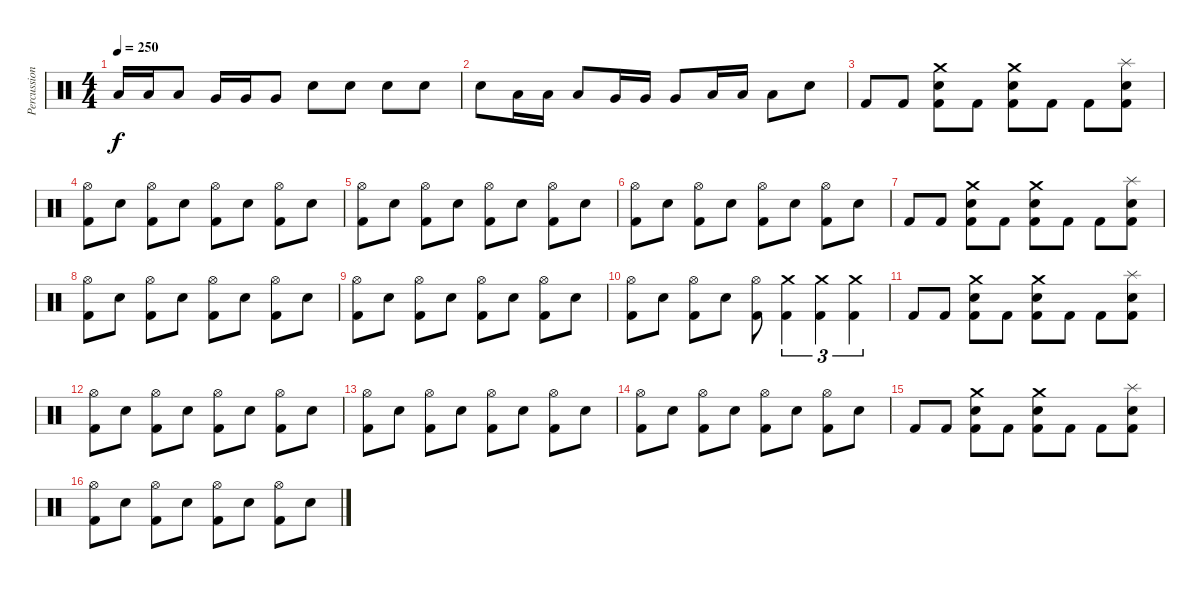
\track ("Percussioni" "Percussion") {instrument percussion}
\staff {score}
\articulation defaults
\ts (4 4)
\tempo 250
\clef neutral
\ks c "Low Tom (hit)".16{dy f} "Low Tom (hit)".16 "Low Tom (hit)".8 "Very Low Tom (hit)".16 "Very Low Tom (hit)".16 "Very Low Tom (hit)".8 "Electric Snare (hit)".8 "Electric Snare (hit)".8 "Electric Snare (hit)".8 "Electric Snare (hit)".8
|
"Electric Snare (hit)".8 "Low Tom (hit)".16 "Low Tom (hit)".16 "Low Tom (hit)".8 "Very Low Tom (hit)".16 "Very Low Tom (hit)".16 "Very Low Tom (hit)".8 "Low Floor Tom (hit)".16 "Low Floor Tom (hit)".16 "Low Floor Tom (hit)".8 "Electric Snare (hit)".8 |
"Kick (hit) 2".8 "Kick (hit) 2".8 ("Crash medium (hit)" "Electric Snare (hit)" "Kick (hit) 2").8 "Kick (hit) 2".8 ("Crash medium (hit)" "Electric Snare (hit)" "Kick (hit) 2").8 "Kick (hit) 2".8 "Kick (hit) 2".8 ("Splash (hit)" "Electric Snare (hit)" "Kick (hit) 2").8 |
("Hi-Hat (open)" "Kick (hit) 2").8 "Electric Snare (hit)".8 ("Hi-Hat (open)" "Kick (hit) 2").8 "Electric Snare (hit)".8 ("Hi-Hat (open)" "Kick (hit) 2").8 "Electric Snare (hit)".8 ("Hi-Hat (open)" "Kick (hit) 2").8 "Electric Snare (hit)".8 |
("Hi-Hat (open)" "Kick (hit) 2").8 "Electric Snare (hit)".8 ("Hi-Hat (open)" "Kick (hit) 2").8 "Electric Snare (hit)".8 ("Hi-Hat (open)" "Kick (hit) 2").8 "Electric Snare (hit)".8 ("Hi-Hat (open)" "Kick (hit) 2").8 "Electric Snare (hit)".8 |
("Hi-Hat (open)" "Kick (hit) 2").8 "Electric Snare (hit)".8 ("Hi-Hat (open)" "Kick (hit) 2").8 "Electric Snare (hit)".8 ("Hi-Hat (open)" "Kick (hit) 2").8 "Electric Snare (hit)".8 ("Hi-Hat (open)" "Kick (hit) 2").8 "Electric Snare (hit)".8 |
"Kick (hit) 2".8 "Kick (hit) 2".8 ("Crash medium (hit)" "Electric Snare (hit)" "Kick (hit) 2").8 "Kick (hit) 2".8 ("Crash medium (hit)" "Electric Snare (hit)" "Kick (hit) 2").8 "Kick (hit) 2".8 "Kick (hit) 2".8 ("Splash (hit)" "Electric Snare (hit)" "Kick (hit) 2").8 |
("Hi-Hat (open)" "Kick (hit) 2").8 "Electric Snare (hit)".8 ("Hi-Hat (open)" "Kick (hit) 2").8 "Electric Snare (hit)".8 ("Hi-Hat (open)" "Kick (hit) 2").8 "Electric Snare (hit)".8 ("Hi-Hat (open)" "Kick (hit) 2").8 "Electric Snare (hit)".8 |
("Hi-Hat (open)" "Kick (hit) 2").8 "Electric Snare (hit)".8 ("Hi-Hat (open)" "Kick (hit) 2").8 "Electric Snare (hit)".8 ("Hi-Hat (open)" "Kick (hit) 2").8 "Electric Snare (hit)".8 ("Hi-Hat (open)" "Kick (hit) 2").8 "Electric Snare (hit)".8 |
("Hi-Hat (open)" "Kick (hit) 2").8 "Electric Snare (hit)".8 ("Hi-Hat (open)" "Kick (hit) 2").8 "Electric Snare (hit)".8 ("Hi-Hat (open)" "Kick (hit) 2").8 ("Crash medium (hit)" "Kick (hit) 2").4{tu (3 2)} ("Crash medium (hit)" "Kick (hit) 2").4{tu (3 2)} ("Crash medium (hit)" "Kick (hit) 2").4{tu (3 2)} |
"Kick (hit) 2".8 "Kick (hit) 2".8 ("Crash medium (hit)" "Electric Snare (hit)" "Kick (hit) 2").8 "Kick (hit) 2".8 ("Crash medium (hit)" "Electric Snare (hit)" "Kick (hit) 2").8 "Kick (hit) 2".8 "Kick (hit) 2".8 ("Splash (hit)" "Electric Snare (hit)" "Kick (hit) 2").8 |
("Hi-Hat (open)" "Kick (hit) 2").8 "Electric Snare (hit)".8 ("Hi-Hat (open)" "Kick (hit) 2").8 "Electric Snare (hit)".8 ("Hi-Hat (open)" "Kick (hit) 2").8 "Electric Snare (hit)".8 ("Hi-Hat (open)" "Kick (hit) 2").8 "Electric Snare (hit)".8 |
("Hi-Hat (open)" "Kick (hit) 2").8 "Electric Snare (hit)".8 ("Hi-Hat (open)" "Kick (hit) 2").8 "Electric Snare (hit)".8 ("Hi-Hat (open)" "Kick (hit) 2").8 "Electric Snare (hit)".8 ("Hi-Hat (open)" "Kick (hit) 2").8 "Electric Snare (hit)".8 |
("Hi-Hat (open)" "Kick (hit) 2").8 "Electric Snare (hit)".8 ("Hi-Hat (open)" "Kick (hit) 2").8 "Electric Snare (hit)".8 ("Hi-Hat (open)" "Kick (hit) 2").8 "Electric Snare (hit)".8 ("Hi-Hat (open)" "Kick (hit) 2").8 "Electric Snare (hit)".8 |
"Kick (hit) 2".8 "Kick (hit) 2".8 ("Crash medium (hit)" "Electric Snare (hit)" "Kick (hit) 2").8 "Kick (hit) 2".8 ("Crash medium (hit)" "Electric Snare (hit)" "Kick (hit) 2").8 "Kick (hit) 2".8 "Kick (hit) 2".8 ("Splash (hit)" "Electric Snare (hit)" "Kick (hit) 2").8 |
("Hi-Hat (open)" "Kick (hit) 2").8 "Electric Snare (hit)".8 ("Hi-Hat (open)" "Kick (hit) 2").8 "Electric Snare (hit)".8 ("Hi-Hat (open)" "Kick (hit) 2").8 "Electric Snare (hit)".8 ("Hi-Hat (open)" "Kick (hit) 2").8 "Electric Snare (hit)".8
